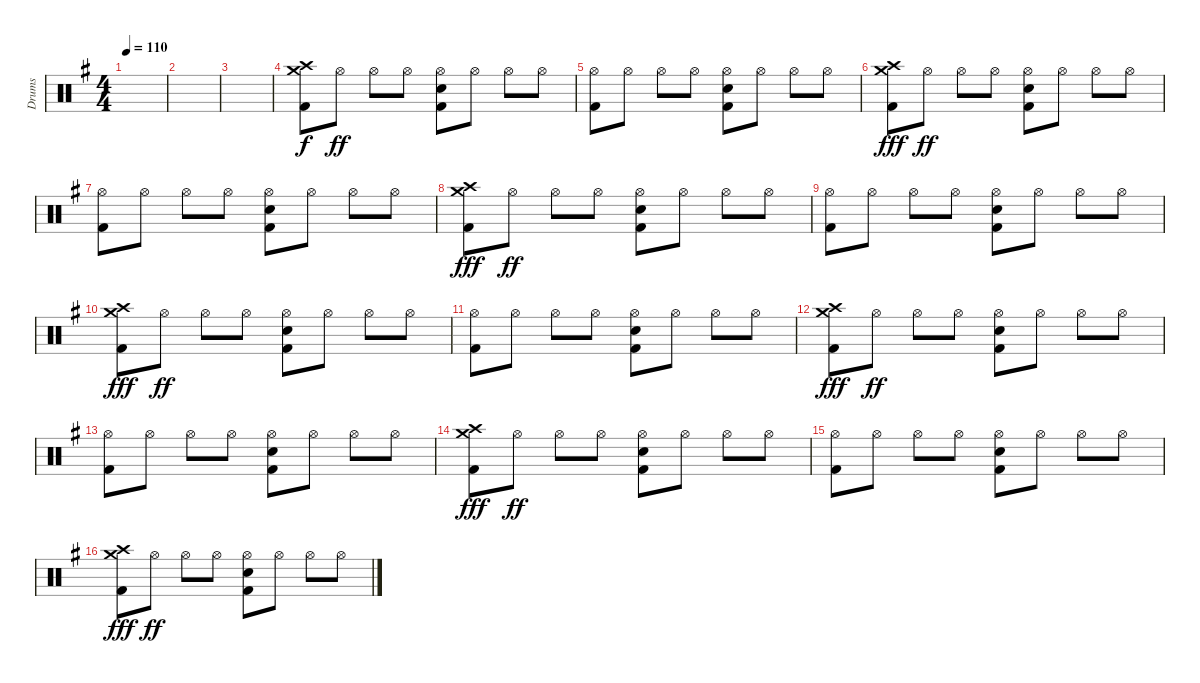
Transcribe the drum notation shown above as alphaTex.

\track ("Drums" "Drums") {instrument percussion}
\staff {score}
\articulation defaults
\ts (4 4)
\tempo 110
\clef neutral
\ks eminor
|
|
|
("Kick (hit) 2" "Crash high (hit)" "Crash medium (hit)").8 "Hi-Hat (open)".8{dy ff} "Hi-Hat (open)".8 "Hi-Hat (open)".8 ("Kick (hit) 2" "Electric Snare (hit)" "Hi-Hat (open)").8 "Hi-Hat (open)".8 "Hi-Hat (open)".8 "Hi-Hat (open)".8 |
("Kick (hit) 2" "Hi-Hat (open)").8 "Hi-Hat (open)".8 "Hi-Hat (open)".8 "Hi-Hat (open)".8 ("Kick (hit) 2" "Electric Snare (hit)" "Hi-Hat (open)").8 "Hi-Hat (open)".8 "Hi-Hat (open)".8 "Hi-Hat (open)".8 |
("Kick (hit) 2" "Crash high (hit)" "Crash medium (hit)").8{dy fff} "Hi-Hat (open)".8{dy ff} "Hi-Hat (open)".8 "Hi-Hat (open)".8 ("Kick (hit) 2" "Electric Snare (hit)" "Hi-Hat (open)").8 "Hi-Hat (open)".8 "Hi-Hat (open)".8 "Hi-Hat (open)".8 |
("Kick (hit) 2" "Hi-Hat (open)").8 "Hi-Hat (open)".8 "Hi-Hat (open)".8 "Hi-Hat (open)".8 ("Kick (hit) 2" "Electric Snare (hit)" "Hi-Hat (open)").8 "Hi-Hat (open)".8 "Hi-Hat (open)".8 "Hi-Hat (open)".8 |
("Kick (hit) 2" "Crash high (hit)" "Crash medium (hit)").8{dy fff} "Hi-Hat (open)".8{dy ff} "Hi-Hat (open)".8 "Hi-Hat (open)".8 ("Kick (hit) 2" "Electric Snare (hit)" "Hi-Hat (open)").8 "Hi-Hat (open)".8 "Hi-Hat (open)".8 "Hi-Hat (open)".8 |
("Kick (hit) 2" "Hi-Hat (open)").8 "Hi-Hat (open)".8 "Hi-Hat (open)".8 "Hi-Hat (open)".8 ("Kick (hit) 2" "Electric Snare (hit)" "Hi-Hat (open)").8 "Hi-Hat (open)".8 "Hi-Hat (open)".8 "Hi-Hat (open)".8 |
("Kick (hit) 2" "Crash high (hit)" "Crash medium (hit)").8{dy fff} "Hi-Hat (open)".8{dy ff} "Hi-Hat (open)".8 "Hi-Hat (open)".8 ("Kick (hit) 2" "Electric Snare (hit)" "Hi-Hat (open)").8 "Hi-Hat (open)".8 "Hi-Hat (open)".8 "Hi-Hat (open)".8 |
("Kick (hit) 2" "Hi-Hat (open)").8 "Hi-Hat (open)".8 "Hi-Hat (open)".8 "Hi-Hat (open)".8 ("Kick (hit) 2" "Electric Snare (hit)" "Hi-Hat (open)").8 "Hi-Hat (open)".8 "Hi-Hat (open)".8 "Hi-Hat (open)".8 |
("Kick (hit) 2" "Crash high (hit)" "Crash medium (hit)").8{dy fff} "Hi-Hat (open)".8{dy ff} "Hi-Hat (open)".8 "Hi-Hat (open)".8 ("Kick (hit) 2" "Electric Snare (hit)" "Hi-Hat (open)").8 "Hi-Hat (open)".8 "Hi-Hat (open)".8 "Hi-Hat (open)".8 |
("Kick (hit) 2" "Hi-Hat (open)").8 "Hi-Hat (open)".8 "Hi-Hat (open)".8 "Hi-Hat (open)".8 ("Kick (hit) 2" "Electric Snare (hit)" "Hi-Hat (open)").8 "Hi-Hat (open)".8 "Hi-Hat (open)".8 "Hi-Hat (open)".8 |
("Kick (hit) 2" "Crash high (hit)" "Crash medium (hit)").8{dy fff} "Hi-Hat (open)".8{dy ff} "Hi-Hat (open)".8 "Hi-Hat (open)".8 ("Kick (hit) 2" "Electric Snare (hit)" "Hi-Hat (open)").8 "Hi-Hat (open)".8 "Hi-Hat (open)".8 "Hi-Hat (open)".8 |
("Kick (hit) 2" "Hi-Hat (open)").8 "Hi-Hat (open)".8 "Hi-Hat (open)".8 "Hi-Hat (open)".8 ("Kick (hit) 2" "Electric Snare (hit)" "Hi-Hat (open)").8 "Hi-Hat (open)".8 "Hi-Hat (open)".8 "Hi-Hat (open)".8 |
("Kick (hit) 2" "Crash high (hit)" "Crash medium (hit)").8{dy fff} "Hi-Hat (open)".8{dy ff} "Hi-Hat (open)".8 "Hi-Hat (open)".8 ("Kick (hit) 2" "Electric Snare (hit)" "Hi-Hat (open)").8 "Hi-Hat (open)".8 "Hi-Hat (open)".8 "Hi-Hat (open)".8
